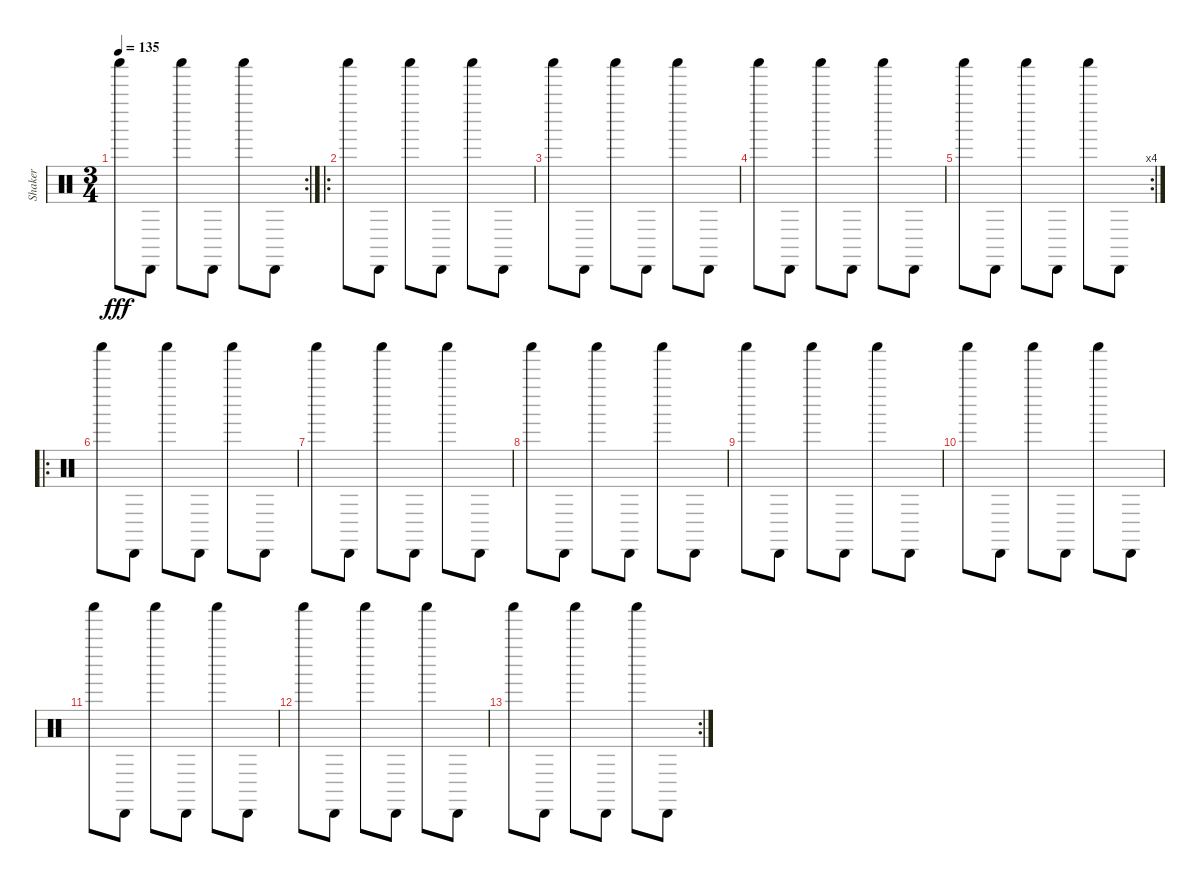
\track ("Shaker" "Shaker") {instrument percussion}
\staff {score}
\articulation defaults
\rc 2
\ts (3 4)
\tempo 135
\clef neutral
\ks c "Shaker (hit)".8{dy fff} "Cabasa (hit)".8 "Shaker (hit)".8 "Cabasa (hit)".8 "Shaker (hit)".8 "Cabasa (hit)".8
|
\ro "Shaker (hit)".8 "Cabasa (hit)".8 "Shaker (hit)".8 "Cabasa (hit)".8 "Shaker (hit)".8 "Cabasa (hit)".8
|
"Shaker (hit)".8 "Cabasa (hit)".8 "Shaker (hit)".8 "Cabasa (hit)".8 "Shaker (hit)".8 "Cabasa (hit)".8 |
"Shaker (hit)".8 "Cabasa (hit)".8 "Shaker (hit)".8 "Cabasa (hit)".8 "Shaker (hit)".8 "Cabasa (hit)".8 |
\rc 4 "Shaker (hit)".8 "Cabasa (hit)".8 "Shaker (hit)".8 "Cabasa (hit)".8 "Shaker (hit)".8 "Cabasa (hit)".8
|
\ro "Shaker (hit)".8 "Cabasa (hit)".8 "Shaker (hit)".8 "Cabasa (hit)".8 "Shaker (hit)".8 "Cabasa (hit)".8
|
"Shaker (hit)".8 "Cabasa (hit)".8 "Shaker (hit)".8 "Cabasa (hit)".8 "Shaker (hit)".8 "Cabasa (hit)".8 |
"Shaker (hit)".8 "Cabasa (hit)".8 "Shaker (hit)".8 "Cabasa (hit)".8 "Shaker (hit)".8 "Cabasa (hit)".8 |
"Shaker (hit)".8 "Cabasa (hit)".8 "Shaker (hit)".8 "Cabasa (hit)".8 "Shaker (hit)".8 "Cabasa (hit)".8 |
"Shaker (hit)".8 "Cabasa (hit)".8 "Shaker (hit)".8 "Cabasa (hit)".8 "Shaker (hit)".8 "Cabasa (hit)".8 |
"Shaker (hit)".8 "Cabasa (hit)".8 "Shaker (hit)".8 "Cabasa (hit)".8 "Shaker (hit)".8 "Cabasa (hit)".8 |
"Shaker (hit)".8 "Cabasa (hit)".8 "Shaker (hit)".8 "Cabasa (hit)".8 "Shaker (hit)".8 "Cabasa (hit)".8 |
\rc 2 "Shaker (hit)".8 "Cabasa (hit)".8 "Shaker (hit)".8 "Cabasa (hit)".8 "Shaker (hit)".8 "Cabasa (hit)".8
